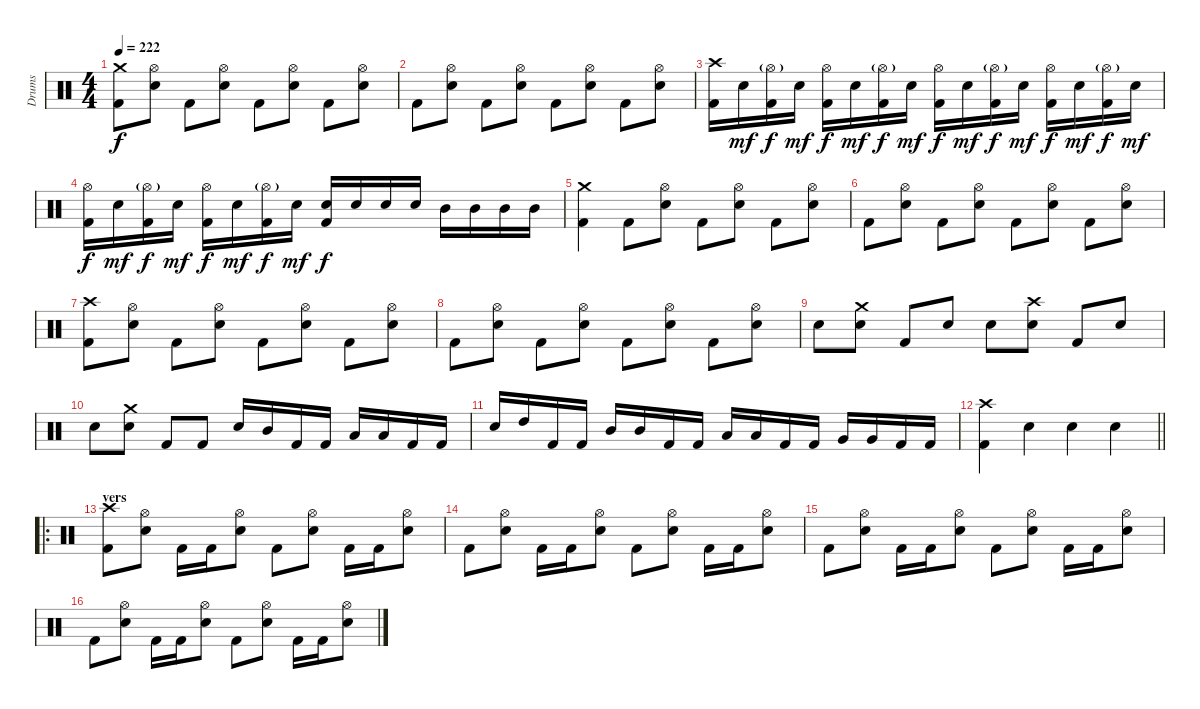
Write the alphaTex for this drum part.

\track ("Drums" "Drums") {instrument percussion}
\staff {score}
\articulation defaults
\ts (4 4)
\tempo 222
\clef neutral
\ks c
("Crash medium (hit)" "Kick (hit) 2").8{dy f} ("Hi-Hat (open)" "Electric Snare (hit)").8 "Kick (hit) 2".8 ("Hi-Hat (open)" "Electric Snare (hit)").8 "Kick (hit) 2".8 ("Hi-Hat (open)" "Electric Snare (hit)").8 "Kick (hit) 2".8 ("Hi-Hat (open)" "Electric Snare (hit)").8 |
"Kick (hit) 2".8 ("Hi-Hat (open)" "Electric Snare (hit)").8 "Kick (hit) 2".8 ("Hi-Hat (open)" "Electric Snare (hit)").8 "Kick (hit) 2".8 ("Hi-Hat (open)" "Electric Snare (hit)").8 "Kick (hit) 2".8 ("Hi-Hat (open)" "Electric Snare (hit)").8 |
("Crash high (hit)" "Kick (hit) 2").16 "Electric Snare (hit)".16{dy mf} ("Hi-Hat (open)"{g} "Kick (hit) 2").16{dy f} "Electric Snare (hit)".16{dy mf} ("Hi-Hat (open)" "Kick (hit) 2").16{dy f} "Electric Snare (hit)".16{dy mf} ("Hi-Hat (open)"{g} "Kick (hit) 2").16{dy f} "Electric Snare (hit)".16{dy mf} ("Hi-Hat (open)" "Kick (hit) 2").16{dy f} "Electric Snare (hit)".16{dy mf} ("Hi-Hat (open)"{g} "Kick (hit) 2").16{dy f} "Electric Snare (hit)".16{dy mf} ("Hi-Hat (open)" "Kick (hit) 2").16{dy f} "Electric Snare (hit)".16{dy mf} ("Hi-Hat (open)"{g} "Kick (hit) 2").16{dy f} "Electric Snare (hit)".16{dy mf} |
("Hi-Hat (open)" "Kick (hit) 2").16{dy f} "Electric Snare (hit)".16{dy mf} ("Hi-Hat (open)"{g} "Kick (hit) 2").16{dy f} "Electric Snare (hit)".16{dy mf} ("Hi-Hat (open)" "Kick (hit) 2").16{dy f} "Electric Snare (hit)".16{dy mf} ("Hi-Hat (open)"{g} "Kick (hit) 2").16{dy f} "Electric Snare (hit)".16{dy mf} ("Electric Snare (hit)" "Kick (hit) 2").16{dy f} "Electric Snare (hit)".16 "Electric Snare (hit)".16 "Electric Snare (hit)".16 "Mid Tom (hit)".16 "Mid Tom (hit)".16 "Mid Tom (hit)".16 "Mid Tom (hit)".16 |
("Crash medium (hit)" "Kick (hit) 2").4 "Kick (hit) 2".8 ("Hi-Hat (open)" "Electric Snare (hit)").8 "Kick (hit) 2".8 ("Hi-Hat (open)" "Electric Snare (hit)").8 "Kick (hit) 2".8 ("Hi-Hat (open)" "Electric Snare (hit)").8 |
"Kick (hit) 2".8 ("Hi-Hat (open)" "Electric Snare (hit)").8 "Kick (hit) 2".8 ("Hi-Hat (open)" "Electric Snare (hit)").8 "Kick (hit) 2".8 ("Hi-Hat (open)" "Electric Snare (hit)").8 "Kick (hit) 2".8 ("Hi-Hat (open)" "Electric Snare (hit)").8 |
("Crash high (hit)" "Kick (hit) 2").8 ("Hi-Hat (open)" "Electric Snare (hit)").8 "Kick (hit) 2".8 ("Hi-Hat (open)" "Electric Snare (hit)").8 "Kick (hit) 2".8 ("Hi-Hat (open)" "Electric Snare (hit)").8 "Kick (hit) 2".8 ("Hi-Hat (open)" "Electric Snare (hit)").8 |
"Kick (hit) 2".8 ("Hi-Hat (open)" "Electric Snare (hit)").8 "Kick (hit) 2".8 ("Hi-Hat (open)" "Electric Snare (hit)").8 "Kick (hit) 2".8 ("Hi-Hat (open)" "Electric Snare (hit)").8 "Kick (hit) 2".8 ("Hi-Hat (open)" "Electric Snare (hit)").8 |
"Electric Snare (hit)".8 ("Crash medium (hit)" "Electric Snare (hit)").8 "Kick (hit) 2".8 "Electric Snare (hit)".8 "Electric Snare (hit)".8 ("Crash high (hit)" "Electric Snare (hit)").8 "Kick (hit) 2".8 "Electric Snare (hit)".8 |
"Electric Snare (hit)".8 ("Crash medium (hit)" "Electric Snare (hit)").8 "Kick (hit) 2".8 "Kick (hit) 2".8 "Electric Snare (hit)".16 "Mid Tom (hit)".16 "Kick (hit) 2".16 "Kick (hit) 2".16 "Low Tom (hit)".16 "Low Tom (hit)".16 "Kick (hit) 2".16 "Kick (hit) 2".16 |
"Electric Snare (hit)".16 "High Tom (hit)".16 "Kick (hit) 2".16 "Kick (hit) 2".16 "Mid Tom (hit)".16 "Mid Tom (hit)".16 "Kick (hit) 2".16 "Kick (hit) 2".16 "Low Tom (hit)".16 "Low Tom (hit)".16 "Kick (hit) 2".16 "Kick (hit) 2".16 "Very Low Tom (hit)".16 "Very Low Tom (hit)".16 "Kick (hit) 2".16 "Kick (hit) 2".16 |
\barLineRight lightlight
("Crash high (hit)" "Kick (hit) 2").4 "Electric Snare (hit)".4 "Electric Snare (hit)".4 "Electric Snare (hit)".4 |
\ro
\section ("" "vers")
("Crash high (hit)" "Kick (hit) 2").8 ("Hi-Hat (open)" "Electric Snare (hit)").8 "Kick (hit) 2".16 "Kick (hit) 2".16 ("Hi-Hat (open)" "Electric Snare (hit)").8 "Kick (hit) 2".8 ("Hi-Hat (open)" "Electric Snare (hit)").8 "Kick (hit) 2".16 "Kick (hit) 2".16 ("Hi-Hat (open)" "Electric Snare (hit)").8 |
"Kick (hit) 2".8 ("Hi-Hat (open)" "Electric Snare (hit)").8 "Kick (hit) 2".16 "Kick (hit) 2".16 ("Hi-Hat (open)" "Electric Snare (hit)").8 "Kick (hit) 2".8 ("Hi-Hat (open)" "Electric Snare (hit)").8 "Kick (hit) 2".16 "Kick (hit) 2".16 ("Hi-Hat (open)" "Electric Snare (hit)").8 |
"Kick (hit) 2".8 ("Hi-Hat (open)" "Electric Snare (hit)").8 "Kick (hit) 2".16 "Kick (hit) 2".16 ("Hi-Hat (open)" "Electric Snare (hit)").8 "Kick (hit) 2".8 ("Hi-Hat (open)" "Electric Snare (hit)").8 "Kick (hit) 2".16 "Kick (hit) 2".16 ("Hi-Hat (open)" "Electric Snare (hit)").8 |
"Kick (hit) 2".8 ("Hi-Hat (open)" "Electric Snare (hit)").8 "Kick (hit) 2".16 "Kick (hit) 2".16 ("Hi-Hat (open)" "Electric Snare (hit)").8 "Kick (hit) 2".8 ("Hi-Hat (open)" "Electric Snare (hit)").8 "Kick (hit) 2".16 "Kick (hit) 2".16 ("Hi-Hat (open)" "Electric Snare (hit)").8
